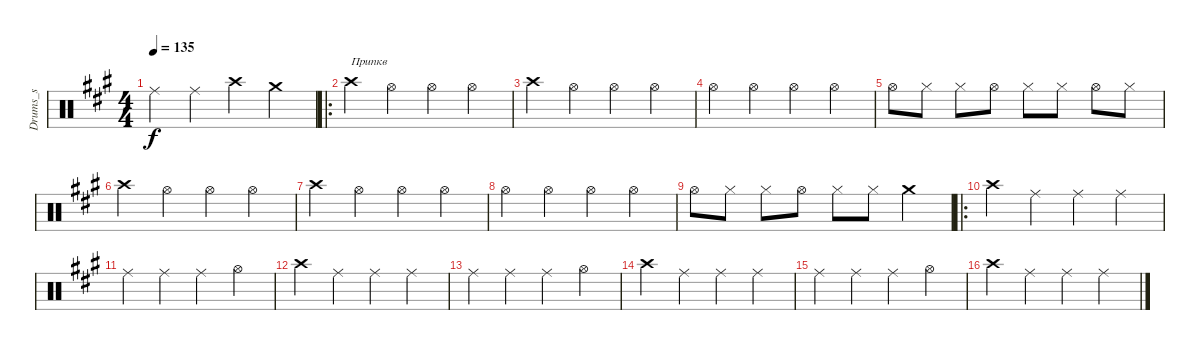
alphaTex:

\track ("Drums_s" "Drums_s") {instrument percussion}
\staff {score}
\articulation defaults
\ts (4 4)
\tempo 135
\clef neutral
\ks a "Ride (middle)".4{dy f} "Ride (middle)".4 "Crash high (hit)".4 "Crash medium (hit)".4
|
\ro "Crash high (hit)".4{txt "Припкв"} "Hi-Hat (open)".4 "Hi-Hat (open)".4 "Hi-Hat (open)".4
|
"Crash high (hit)".4 "Hi-Hat (open)".4 "Hi-Hat (open)".4 "Hi-Hat (open)".4 |
"Hi-Hat (open)".4 "Hi-Hat (open)".4 "Hi-Hat (open)".4 "Hi-Hat (open)".4 |
"Hi-Hat (open)".8 "Hi-Hat (closed)".8 "Hi-Hat (closed)".8 "Hi-Hat (open)".8 "Hi-Hat (closed)".8 "Hi-Hat (closed)".8 "Hi-Hat (open)".8 "Hi-Hat (closed)".8 |
"Crash high (hit)".4 "Hi-Hat (open)".4 "Hi-Hat (open)".4 "Hi-Hat (open)".4 |
"Crash high (hit)".4 "Hi-Hat (open)".4 "Hi-Hat (open)".4 "Hi-Hat (open)".4 |
"Hi-Hat (open)".4 "Hi-Hat (open)".4 "Hi-Hat (open)".4 "Hi-Hat (open)".4 |
"Hi-Hat (open)".8 "Hi-Hat (closed)".8 "Hi-Hat (closed)".8 "Hi-Hat (open)".8 "Hi-Hat (closed)".8 "Hi-Hat (closed)".8 "Crash medium (hit)".4 |
\ro "Crash high (hit)".4 "Ride (middle)".4 "Ride (middle)".4 "Ride (middle)".4
|
"Ride (middle)".4 "Ride (middle)".4 "Ride (middle)".4 "Hi-Hat (open)".4 |
"Crash high (hit)".4 "Ride (middle)".4 "Ride (middle)".4 "Ride (middle)".4 |
"Ride (middle)".4 "Ride (middle)".4 "Ride (middle)".4 "Hi-Hat (open)".4 |
"Crash high (hit)".4 "Ride (middle)".4 "Ride (middle)".4 "Ride (middle)".4 |
"Ride (middle)".4 "Ride (middle)".4 "Ride (middle)".4 "Hi-Hat (open)".4 |
"Crash high (hit)".4 "Ride (middle)".4 "Ride (middle)".4 "Ride (middle)".4
